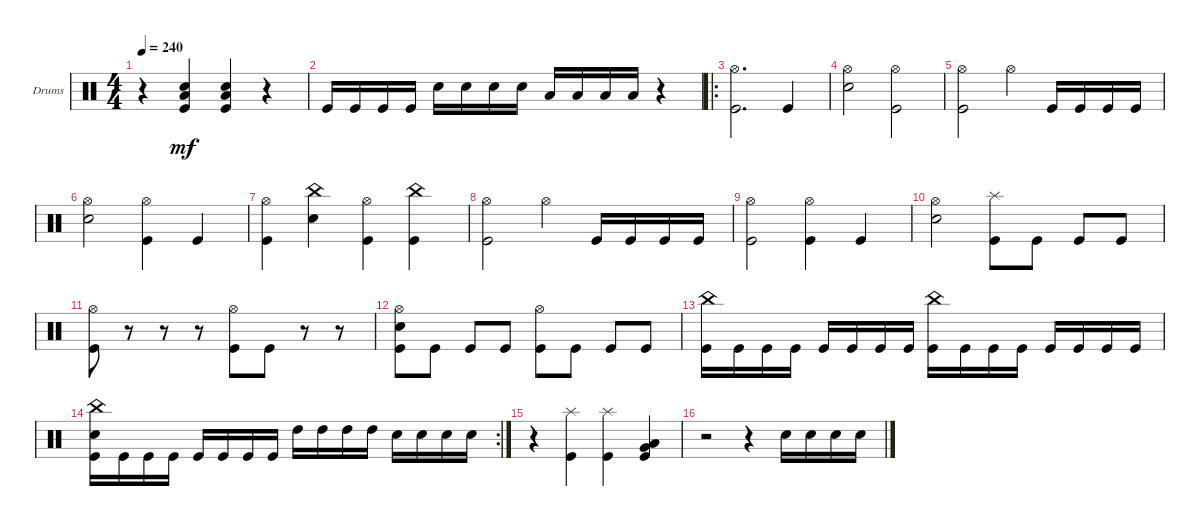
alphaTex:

\defaultSystemsLayout 4
\bracketExtendMode groupsimilarinstruments
\firstSystemTrackNameOrientation horizontal
\otherSystemsTrackNameOrientation horizontal
\track ("Drumkit" "Drums") {instrument percussion}
\staff {score}
\articulation defaults
\ts (4 4)
\tempo 240
\clef neutral
\ks c
r.4{dy mf} ("Kick (hit)" "Low Tom (hit)" "Snare (hit) 2").4 ("Kick (hit)" "Snare (hit) 2" "Low Tom (hit)").4 r.4 |
"Kick (hit)".16 "Kick (hit)".16 "Kick (hit)".16 "Kick (hit)".16 "Snare (hit) 2".16 "Snare (hit) 2".16 "Snare (hit) 2".16 "Snare (hit) 2".16 "Low Tom (hit)".16 "Low Tom (hit)".16 "Low Tom (hit)".16 "Low Tom (hit)".16 r.4 |
\ro
("Hi-Hat (open)" "Kick (hit)").2{d} "Kick (hit)".4 |
("Snare (hit) 2" "Hi-Hat (open)").2 ("Hi-Hat (open)" "Kick (hit)").2 |
("Kick (hit)" "Hi-Hat (open)").2 "Hi-Hat (open)".4 "Kick (hit)".16 "Kick (hit)".16 "Kick (hit)".16 "Kick (hit)".16 |
("Hi-Hat (open)" "Snare (hit) 2").2 ("Hi-Hat (open)" "Kick (hit)").4 "Kick (hit)".4 |
("Hi-Hat (open)" "Kick (hit)").4 ("China (hit)" "Snare (hit) 2").4 ("Hi-Hat (open)" "Kick (hit)").4 ("China (hit)" "Kick (hit)").4 |
("Kick (hit)" "Hi-Hat (open)").2 "Hi-Hat (open)".4 "Kick (hit)".16 "Kick (hit)".16 "Kick (hit)".16 "Kick (hit)".16 |
("Hi-Hat (open)" "Kick (hit)").2 ("Kick (hit)" "Hi-Hat (open)").4 "Kick (hit)".4 |
("Snare (hit) 2" "Hi-Hat (open)").2 ("Kick (hit)" "Splash (hit)").8 "Kick (hit)".8 "Kick (hit)".8 "Kick (hit)".8 |
("Kick (hit)" "Hi-Hat (open)").8 r.8 r.8 r.8 ("Kick (hit)" "Hi-Hat (open)").8 "Kick (hit)".8 r.8 r.8 |
("Kick (hit)" "Snare (hit) 2" "Hi-Hat (open)").8 "Kick (hit)".8 "Kick (hit)".8 "Kick (hit)".8 ("Kick (hit)" "Hi-Hat (open)").8 "Kick (hit)".8 "Kick (hit)".8 "Kick (hit)".8 |
("Kick (hit)" "China (hit)").16 "Kick (hit)".16 "Kick (hit)".16 "Kick (hit)".16 "Kick (hit)".16 "Kick (hit)".16 "Kick (hit)".16 "Kick (hit)".16 ("Kick (hit)" "China (hit)").16 "Kick (hit)".16 "Kick (hit)".16 "Kick (hit)".16 "Kick (hit)".16 "Kick (hit)".16 "Kick (hit)".16 "Kick (hit)".16 |
\rc 2
("Kick (hit)" "China (hit)" "Snare (hit) 2").16 "Kick (hit)".16 "Kick (hit)".16 "Kick (hit)".16 "Kick (hit)".16 "Kick (hit)".16 "Kick (hit)".16 "Kick (hit)".16 "High Tom (hit)".16 "High Tom (hit)".16 "High Tom (hit)".16 "High Tom (hit)".16 "Snare (hit) 2".16 "Snare (hit) 2".16 "Snare (hit) 2".16 "Snare (hit) 2".16 |
r.4 ("Splash (hit)" "Kick (hit)").4 ("Kick (hit)" "Splash (hit)").4 ("Kick (hit)" "Very Low Tom (hit)" "Low Tom (hit)").4 |
r.2 r.4 "Snare (hit) 2".16 "Snare (hit) 2".16 "Snare (hit) 2".16 "Snare (hit) 2".16
